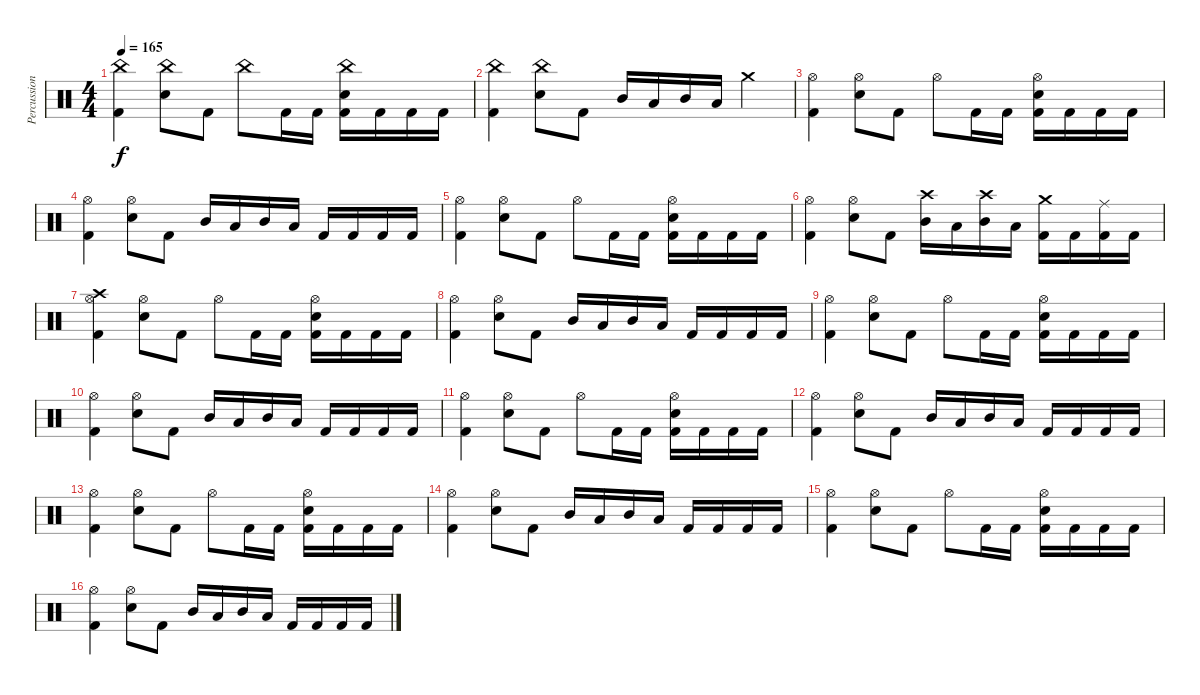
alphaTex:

\track ("Percussion" "Percussion") {instrument percussion}
\staff {score}
\articulation defaults
\ts (4 4)
\tempo 165
\clef neutral
\ks c
("China (hit)" "Kick (hit) 2").4{dy f} ("China (hit)" "Snare (hit) 2").8 "Kick (hit) 2".8 "China (hit)".8 "Kick (hit) 2".16 "Kick (hit) 2".16 ("China (hit)" "Snare (hit) 2" "Kick (hit) 2").16 "Kick (hit) 2".16 "Kick (hit) 2".16 "Kick (hit) 2".16 |
("China (hit)" "Kick (hit) 2").4 ("China (hit)" "Snare (hit) 2").8 "Kick (hit) 2".8 "Mid Tom (hit)".16 "Low Tom (hit)".16 "Mid Tom (hit)".16 "Low Tom (hit)".16 "Crash medium (hit)".4 |
("Hi-Hat (open)" "Kick (hit) 2").4 ("Hi-Hat (open)" "Snare (hit) 2").8 "Kick (hit) 2".8 "Hi-Hat (open)".8 "Kick (hit) 2".16 "Kick (hit) 2".16 ("Hi-Hat (open)" "Snare (hit) 2" "Kick (hit) 2").16 "Kick (hit) 2".16 "Kick (hit) 2".16 "Kick (hit) 2".16 |
("Hi-Hat (open)" "Kick (hit) 2").4 ("Hi-Hat (open)" "Snare (hit) 2").8 "Kick (hit) 2".8 "Mid Tom (hit)".16 "Low Tom (hit)".16 "Mid Tom (hit)".16 "Low Tom (hit)".16 "Kick (hit) 2".16 "Kick (hit) 2".16 "Kick (hit) 2".16 "Kick (hit) 2".16 |
("Hi-Hat (open)" "Kick (hit) 2").4 ("Hi-Hat (open)" "Snare (hit) 2").8 "Kick (hit) 2".8 "Hi-Hat (open)".8 "Kick (hit) 2".16 "Kick (hit) 2".16 ("Hi-Hat (open)" "Snare (hit) 2" "Kick (hit) 2").16 "Kick (hit) 2".16 "Kick (hit) 2".16 "Kick (hit) 2".16 |
("Hi-Hat (open)" "Kick (hit) 2").4 ("Hi-Hat (open)" "Snare (hit) 2").8 "Kick (hit) 2".8 ("Crash high (hit)" "Mid Tom (hit)").16 "Low Tom (hit)".16 ("Crash high (hit)" "Mid Tom (hit)").16 "Low Tom (hit)".16 ("Crash medium (hit)" "Kick (hit) 2").16 "Kick (hit) 2".16 ("Ride (middle)" "Kick (hit) 2").16 "Kick (hit) 2".16 |
("Crash high (hit)" "Hi-Hat (open)" "Kick (hit) 2").4 ("Hi-Hat (open)" "Snare (hit) 2").8 "Kick (hit) 2".8 "Hi-Hat (open)".8 "Kick (hit) 2".16 "Kick (hit) 2".16 ("Hi-Hat (open)" "Snare (hit) 2" "Kick (hit) 2").16 "Kick (hit) 2".16 "Kick (hit) 2".16 "Kick (hit) 2".16 |
("Hi-Hat (open)" "Kick (hit) 2").4 ("Hi-Hat (open)" "Snare (hit) 2").8 "Kick (hit) 2".8 "Mid Tom (hit)".16 "Low Tom (hit)".16 "Mid Tom (hit)".16 "Low Tom (hit)".16 "Kick (hit) 2".16 "Kick (hit) 2".16 "Kick (hit) 2".16 "Kick (hit) 2".16 |
("Hi-Hat (open)" "Kick (hit) 2").4 ("Hi-Hat (open)" "Snare (hit) 2").8 "Kick (hit) 2".8 "Hi-Hat (open)".8 "Kick (hit) 2".16 "Kick (hit) 2".16 ("Hi-Hat (open)" "Snare (hit) 2" "Kick (hit) 2").16 "Kick (hit) 2".16 "Kick (hit) 2".16 "Kick (hit) 2".16 |
("Hi-Hat (open)" "Kick (hit) 2").4 ("Hi-Hat (open)" "Snare (hit) 2").8 "Kick (hit) 2".8 "Mid Tom (hit)".16 "Low Tom (hit)".16 "Mid Tom (hit)".16 "Low Tom (hit)".16 "Kick (hit) 2".16 "Kick (hit) 2".16 "Kick (hit) 2".16 "Kick (hit) 2".16 |
("Hi-Hat (open)" "Kick (hit) 2").4 ("Hi-Hat (open)" "Snare (hit) 2").8 "Kick (hit) 2".8 "Hi-Hat (open)".8 "Kick (hit) 2".16 "Kick (hit) 2".16 ("Hi-Hat (open)" "Snare (hit) 2" "Kick (hit) 2").16 "Kick (hit) 2".16 "Kick (hit) 2".16 "Kick (hit) 2".16 |
("Hi-Hat (open)" "Kick (hit) 2").4 ("Hi-Hat (open)" "Snare (hit) 2").8 "Kick (hit) 2".8 "Mid Tom (hit)".16 "Low Tom (hit)".16 "Mid Tom (hit)".16 "Low Tom (hit)".16 "Kick (hit) 2".16 "Kick (hit) 2".16 "Kick (hit) 2".16 "Kick (hit) 2".16 |
("Hi-Hat (open)" "Kick (hit) 2").4 ("Hi-Hat (open)" "Snare (hit) 2").8 "Kick (hit) 2".8 "Hi-Hat (open)".8 "Kick (hit) 2".16 "Kick (hit) 2".16 ("Hi-Hat (open)" "Snare (hit) 2" "Kick (hit) 2").16 "Kick (hit) 2".16 "Kick (hit) 2".16 "Kick (hit) 2".16 |
("Hi-Hat (open)" "Kick (hit) 2").4 ("Hi-Hat (open)" "Snare (hit) 2").8 "Kick (hit) 2".8 "Mid Tom (hit)".16 "Low Tom (hit)".16 "Mid Tom (hit)".16 "Low Tom (hit)".16 "Kick (hit) 2".16 "Kick (hit) 2".16 "Kick (hit) 2".16 "Kick (hit) 2".16 |
("Hi-Hat (open)" "Kick (hit) 2").4 ("Hi-Hat (open)" "Snare (hit) 2").8 "Kick (hit) 2".8 "Hi-Hat (open)".8 "Kick (hit) 2".16 "Kick (hit) 2".16 ("Hi-Hat (open)" "Snare (hit) 2" "Kick (hit) 2").16 "Kick (hit) 2".16 "Kick (hit) 2".16 "Kick (hit) 2".16 |
("Hi-Hat (open)" "Kick (hit) 2").4 ("Hi-Hat (open)" "Snare (hit) 2").8 "Kick (hit) 2".8 "Mid Tom (hit)".16 "Low Tom (hit)".16 "Mid Tom (hit)".16 "Low Tom (hit)".16 "Kick (hit) 2".16 "Kick (hit) 2".16 "Kick (hit) 2".16 "Kick (hit) 2".16
